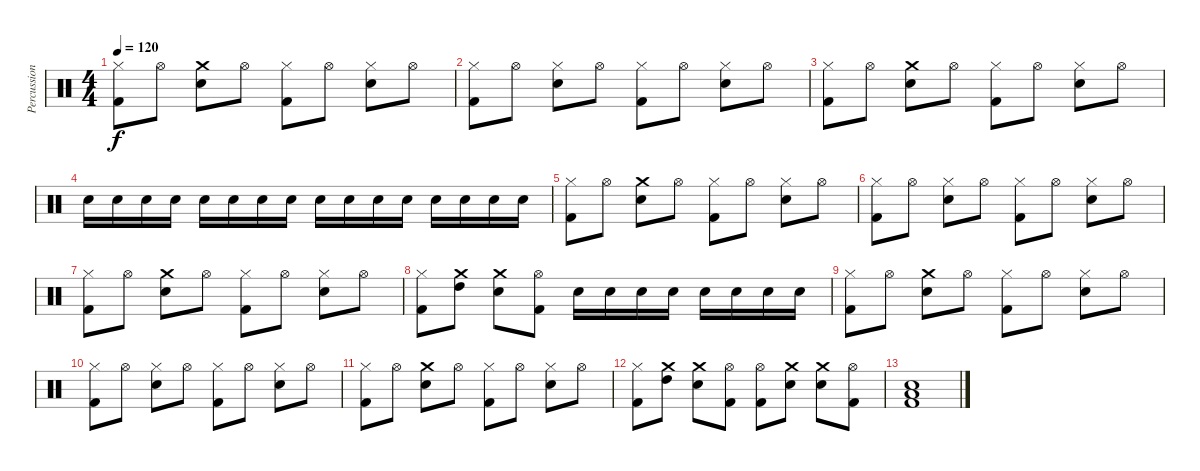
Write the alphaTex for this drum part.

\track ("Percussion" "Percussion") {instrument percussion}
\staff {score}
\articulation defaults
\ts (4 4)
\tempo 120
\clef neutral
\ks c
("Hi-Hat (closed)" "Kick (hit) 2").8{dy f} "Hi-Hat (open)".8 ("Crash medium (hit)" "Snare (hit) 2").8 "Hi-Hat (open)".8 ("Hi-Hat (closed)" "Kick (hit) 2").8 "Hi-Hat (open)".8 ("Hi-Hat (closed)" "Snare (hit) 2").8 "Hi-Hat (open)".8 |
("Hi-Hat (closed)" "Kick (hit) 2").8 "Hi-Hat (open)".8 ("Hi-Hat (closed)" "Snare (hit) 2").8 "Hi-Hat (open)".8 ("Hi-Hat (closed)" "Kick (hit) 2").8 "Hi-Hat (open)".8 ("Hi-Hat (closed)" "Snare (hit) 2").8 "Hi-Hat (open)".8 |
("Hi-Hat (closed)" "Kick (hit) 2").8 "Hi-Hat (open)".8 ("Crash medium (hit)" "Snare (hit) 2").8 "Hi-Hat (open)".8 ("Hi-Hat (closed)" "Kick (hit) 2").8 "Hi-Hat (open)".8 ("Hi-Hat (closed)" "Snare (hit) 2").8 "Hi-Hat (open)".8 |
"Snare (hit) 2".16 "Snare (hit) 2".16 "Snare (hit) 2".16 "Snare (hit) 2".16 "Snare (hit) 2".16 "Snare (hit) 2".16 "Snare (hit) 2".16 "Snare (hit) 2".16 "Snare (hit) 2".16 "Snare (hit) 2".16 "Snare (hit) 2".16 "Snare (hit) 2".16 "Snare (hit) 2".16 "Snare (hit) 2".16 "Snare (hit) 2".16 "Snare (hit) 2".16 |
("Hi-Hat (closed)" "Kick (hit) 2").8 "Hi-Hat (open)".8 ("Crash medium (hit)" "Snare (hit) 2").8 "Hi-Hat (open)".8 ("Hi-Hat (closed)" "Kick (hit) 2").8 "Hi-Hat (open)".8 ("Hi-Hat (closed)" "Snare (hit) 2").8 "Hi-Hat (open)".8 |
("Hi-Hat (closed)" "Kick (hit) 2").8 "Hi-Hat (open)".8 ("Hi-Hat (closed)" "Snare (hit) 2").8 "Hi-Hat (open)".8 ("Hi-Hat (closed)" "Kick (hit) 2").8 "Hi-Hat (open)".8 ("Hi-Hat (closed)" "Snare (hit) 2").8 "Hi-Hat (open)".8 |
("Hi-Hat (closed)" "Kick (hit) 2").8 "Hi-Hat (open)".8 ("Crash medium (hit)" "Snare (hit) 2").8 "Hi-Hat (open)".8 ("Hi-Hat (closed)" "Kick (hit) 2").8 "Hi-Hat (open)".8 ("Hi-Hat (closed)" "Snare (hit) 2").8 "Hi-Hat (open)".8 |
("Hi-Hat (closed)" "Kick (hit) 2").8 ("Crash medium (hit)" "High Tom (hit)").8 ("Crash medium (hit)" "Snare (hit) 2").8 ("Kick (hit) 2" "Hi-Hat (open)").8 "Snare (hit) 2".16 "Snare (hit) 2".16 "Snare (hit) 2".16 "Snare (hit) 2".16 "Snare (hit) 2".16 "Snare (hit) 2".16 "Snare (hit) 2".16 "Snare (hit) 2".16 |
("Hi-Hat (closed)" "Kick (hit) 2").8 "Hi-Hat (open)".8 ("Crash medium (hit)" "Snare (hit) 2").8 "Hi-Hat (open)".8 ("Hi-Hat (closed)" "Kick (hit) 2").8 "Hi-Hat (open)".8 ("Hi-Hat (closed)" "Snare (hit) 2").8 "Hi-Hat (open)".8 |
("Hi-Hat (closed)" "Kick (hit) 2").8 "Hi-Hat (open)".8 ("Hi-Hat (closed)" "Snare (hit) 2").8 "Hi-Hat (open)".8 ("Hi-Hat (closed)" "Kick (hit) 2").8 "Hi-Hat (open)".8 ("Hi-Hat (closed)" "Snare (hit) 2").8 "Hi-Hat (open)".8 |
("Hi-Hat (closed)" "Kick (hit) 2").8 "Hi-Hat (open)".8 ("Crash medium (hit)" "Snare (hit) 2").8 "Hi-Hat (open)".8 ("Hi-Hat (closed)" "Kick (hit) 2").8 "Hi-Hat (open)".8 ("Hi-Hat (closed)" "Snare (hit) 2").8 "Hi-Hat (open)".8 |
("Hi-Hat (closed)" "Kick (hit) 2").8 ("Crash medium (hit)" "High Tom (hit)").8 ("Crash medium (hit)" "Snare (hit) 2").8 ("Kick (hit) 2" "Hi-Hat (open)").8 ("Hi-Hat (open)" "Kick (hit) 2").8 ("Crash medium (hit)" "Snare (hit) 2").8 ("Crash medium (hit)" "Snare (hit) 2").8 ("Hi-Hat (open)" "Kick (hit) 2").8 |
("Low Floor Tom (hit)" "Snare (hit) 2" "Kick (hit) 2").1
